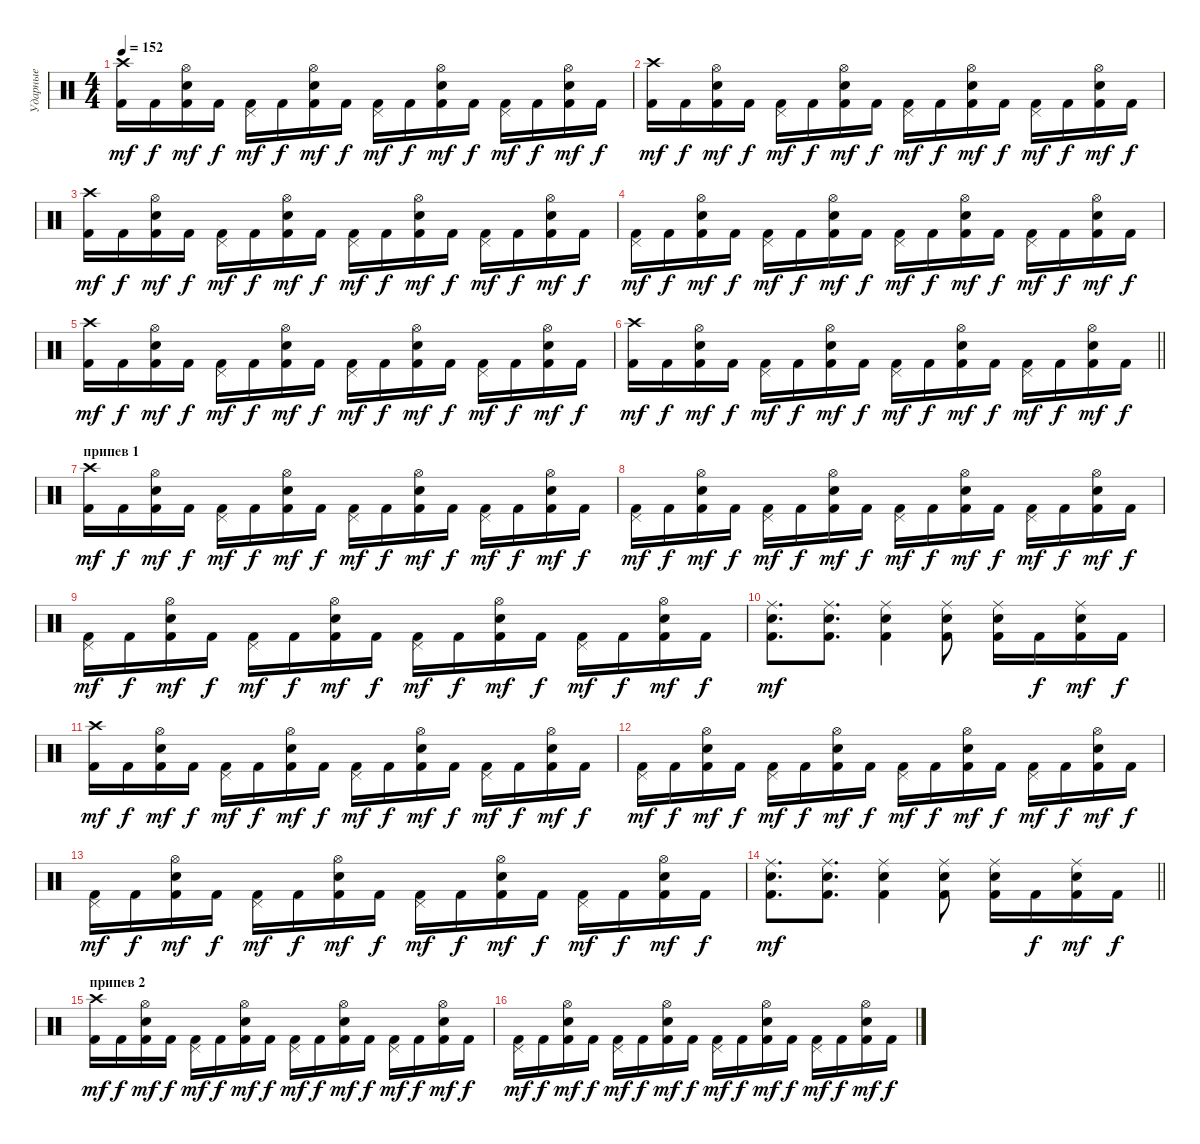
\track ("Ударные" "Ударные") {instrument percussion}
\staff {score}
\articulation defaults
\ts (4 4)
\tempo 152
\clef neutral
\ks c
("Kick (hit) 2" "Crash high (hit)").16{dy mf} "Kick (hit) 2".16{dy f} ("Kick (hit) 2" "Electric Snare (hit)" "Hi-Hat (open)").16{dy mf} "Kick (hit) 2".16{dy f} ("Kick (hit) 2" "Pedal Hi-Hat (hit)").16{dy mf} "Kick (hit) 2".16{dy f} ("Kick (hit) 2" "Electric Snare (hit)" "Hi-Hat (open)").16{dy mf} "Kick (hit) 2".16{dy f} ("Kick (hit) 2" "Pedal Hi-Hat (hit)").16{dy mf} "Kick (hit) 2".16{dy f} ("Kick (hit) 2" "Electric Snare (hit)" "Hi-Hat (open)").16{dy mf} "Kick (hit) 2".16{dy f} ("Kick (hit) 2" "Pedal Hi-Hat (hit)").16{dy mf} "Kick (hit) 2".16{dy f} ("Kick (hit) 2" "Electric Snare (hit)" "Hi-Hat (open)").16{dy mf} "Kick (hit) 2".16{dy f} |
("Kick (hit) 2" "Crash high (hit)").16{dy mf} "Kick (hit) 2".16{dy f} ("Kick (hit) 2" "Electric Snare (hit)" "Hi-Hat (open)").16{dy mf} "Kick (hit) 2".16{dy f} ("Kick (hit) 2" "Pedal Hi-Hat (hit)").16{dy mf} "Kick (hit) 2".16{dy f} ("Kick (hit) 2" "Electric Snare (hit)" "Hi-Hat (open)").16{dy mf} "Kick (hit) 2".16{dy f} ("Kick (hit) 2" "Pedal Hi-Hat (hit)").16{dy mf} "Kick (hit) 2".16{dy f} ("Kick (hit) 2" "Electric Snare (hit)" "Hi-Hat (open)").16{dy mf} "Kick (hit) 2".16{dy f} ("Kick (hit) 2" "Pedal Hi-Hat (hit)").16{dy mf} "Kick (hit) 2".16{dy f} ("Kick (hit) 2" "Electric Snare (hit)" "Hi-Hat (open)").16{dy mf} "Kick (hit) 2".16{dy f} |
("Kick (hit) 2" "Crash high (hit)").16{dy mf} "Kick (hit) 2".16{dy f} ("Kick (hit) 2" "Electric Snare (hit)" "Hi-Hat (open)").16{dy mf} "Kick (hit) 2".16{dy f} ("Kick (hit) 2" "Pedal Hi-Hat (hit)").16{dy mf} "Kick (hit) 2".16{dy f} ("Kick (hit) 2" "Electric Snare (hit)" "Hi-Hat (open)").16{dy mf} "Kick (hit) 2".16{dy f} ("Kick (hit) 2" "Pedal Hi-Hat (hit)").16{dy mf} "Kick (hit) 2".16{dy f} ("Kick (hit) 2" "Electric Snare (hit)" "Hi-Hat (open)").16{dy mf} "Kick (hit) 2".16{dy f} ("Kick (hit) 2" "Pedal Hi-Hat (hit)").16{dy mf} "Kick (hit) 2".16{dy f} ("Kick (hit) 2" "Electric Snare (hit)" "Hi-Hat (open)").16{dy mf} "Kick (hit) 2".16{dy f} |
("Kick (hit) 2" "Pedal Hi-Hat (hit)").16{dy mf} "Kick (hit) 2".16{dy f} ("Kick (hit) 2" "Electric Snare (hit)" "Hi-Hat (open)").16{dy mf} "Kick (hit) 2".16{dy f} ("Kick (hit) 2" "Pedal Hi-Hat (hit)").16{dy mf} "Kick (hit) 2".16{dy f} ("Kick (hit) 2" "Electric Snare (hit)" "Hi-Hat (open)").16{dy mf} "Kick (hit) 2".16{dy f} ("Kick (hit) 2" "Pedal Hi-Hat (hit)").16{dy mf} "Kick (hit) 2".16{dy f} ("Kick (hit) 2" "Electric Snare (hit)" "Hi-Hat (open)").16{dy mf} "Kick (hit) 2".16{dy f} ("Kick (hit) 2" "Pedal Hi-Hat (hit)").16{dy mf} "Kick (hit) 2".16{dy f} ("Kick (hit) 2" "Electric Snare (hit)" "Hi-Hat (open)").16{dy mf} "Kick (hit) 2".16{dy f} |
("Kick (hit) 2" "Crash high (hit)").16{dy mf} "Kick (hit) 2".16{dy f} ("Kick (hit) 2" "Electric Snare (hit)" "Hi-Hat (open)").16{dy mf} "Kick (hit) 2".16{dy f} ("Kick (hit) 2" "Pedal Hi-Hat (hit)").16{dy mf} "Kick (hit) 2".16{dy f} ("Kick (hit) 2" "Electric Snare (hit)" "Hi-Hat (open)").16{dy mf} "Kick (hit) 2".16{dy f} ("Kick (hit) 2" "Pedal Hi-Hat (hit)").16{dy mf} "Kick (hit) 2".16{dy f} ("Kick (hit) 2" "Electric Snare (hit)" "Hi-Hat (open)").16{dy mf} "Kick (hit) 2".16{dy f} ("Kick (hit) 2" "Pedal Hi-Hat (hit)").16{dy mf} "Kick (hit) 2".16{dy f} ("Kick (hit) 2" "Electric Snare (hit)" "Hi-Hat (open)").16{dy mf} "Kick (hit) 2".16{dy f} |
\barLineRight lightlight
("Kick (hit) 2" "Crash high (hit)").16{dy mf} "Kick (hit) 2".16{dy f} ("Kick (hit) 2" "Electric Snare (hit)" "Hi-Hat (open)").16{dy mf} "Kick (hit) 2".16{dy f} ("Kick (hit) 2" "Pedal Hi-Hat (hit)").16{dy mf} "Kick (hit) 2".16{dy f} ("Kick (hit) 2" "Electric Snare (hit)" "Hi-Hat (open)").16{dy mf} "Kick (hit) 2".16{dy f} ("Kick (hit) 2" "Pedal Hi-Hat (hit)").16{dy mf} "Kick (hit) 2".16{dy f} ("Kick (hit) 2" "Electric Snare (hit)" "Hi-Hat (open)").16{dy mf} "Kick (hit) 2".16{dy f} ("Kick (hit) 2" "Pedal Hi-Hat (hit)").16{dy mf} "Kick (hit) 2".16{dy f} ("Kick (hit) 2" "Electric Snare (hit)" "Hi-Hat (open)").16{dy mf} "Kick (hit) 2".16{dy f} |
\section ("" "припев 1")
("Kick (hit) 2" "Crash high (hit)").16{dy mf} "Kick (hit) 2".16{dy f} ("Kick (hit) 2" "Electric Snare (hit)" "Hi-Hat (open)").16{dy mf} "Kick (hit) 2".16{dy f} ("Kick (hit) 2" "Pedal Hi-Hat (hit)").16{dy mf} "Kick (hit) 2".16{dy f} ("Kick (hit) 2" "Electric Snare (hit)" "Hi-Hat (open)").16{dy mf} "Kick (hit) 2".16{dy f} ("Kick (hit) 2" "Pedal Hi-Hat (hit)").16{dy mf} "Kick (hit) 2".16{dy f} ("Kick (hit) 2" "Electric Snare (hit)" "Hi-Hat (open)").16{dy mf} "Kick (hit) 2".16{dy f} ("Kick (hit) 2" "Pedal Hi-Hat (hit)").16{dy mf} "Kick (hit) 2".16{dy f} ("Kick (hit) 2" "Electric Snare (hit)" "Hi-Hat (open)").16{dy mf} "Kick (hit) 2".16{dy f} |
("Kick (hit) 2" "Pedal Hi-Hat (hit)").16{dy mf} "Kick (hit) 2".16{dy f} ("Kick (hit) 2" "Electric Snare (hit)" "Hi-Hat (open)").16{dy mf} "Kick (hit) 2".16{dy f} ("Kick (hit) 2" "Pedal Hi-Hat (hit)").16{dy mf} "Kick (hit) 2".16{dy f} ("Kick (hit) 2" "Electric Snare (hit)" "Hi-Hat (open)").16{dy mf} "Kick (hit) 2".16{dy f} ("Kick (hit) 2" "Pedal Hi-Hat (hit)").16{dy mf} "Kick (hit) 2".16{dy f} ("Kick (hit) 2" "Electric Snare (hit)" "Hi-Hat (open)").16{dy mf} "Kick (hit) 2".16{dy f} ("Kick (hit) 2" "Pedal Hi-Hat (hit)").16{dy mf} "Kick (hit) 2".16{dy f} ("Kick (hit) 2" "Electric Snare (hit)" "Hi-Hat (open)").16{dy mf} "Kick (hit) 2".16{dy f} |
("Kick (hit) 2" "Pedal Hi-Hat (hit)").16{dy mf} "Kick (hit) 2".16{dy f} ("Kick (hit) 2" "Electric Snare (hit)" "Hi-Hat (open)").16{dy mf} "Kick (hit) 2".16{dy f} ("Kick (hit) 2" "Pedal Hi-Hat (hit)").16{dy mf} "Kick (hit) 2".16{dy f} ("Kick (hit) 2" "Electric Snare (hit)" "Hi-Hat (open)").16{dy mf} "Kick (hit) 2".16{dy f} ("Kick (hit) 2" "Pedal Hi-Hat (hit)").16{dy mf} "Kick (hit) 2".16{dy f} ("Kick (hit) 2" "Electric Snare (hit)" "Hi-Hat (open)").16{dy mf} "Kick (hit) 2".16{dy f} ("Kick (hit) 2" "Pedal Hi-Hat (hit)").16{dy mf} "Kick (hit) 2".16{dy f} ("Kick (hit) 2" "Electric Snare (hit)" "Hi-Hat (open)").16{dy mf} "Kick (hit) 2".16{dy f} |
("Kick (hit) 2" "Electric Snare (hit)" "Ride (middle)").8{d dy mf} ("Kick (hit) 2" "Electric Snare (hit)" "Ride (middle)").8{d} ("Kick (hit) 2" "Electric Snare (hit)" "Ride (middle)").4 ("Kick (hit) 2" "Electric Snare (hit)" "Ride (middle)").8 ("Kick (hit) 2" "Electric Snare (hit)" "Ride (middle)").16 "Kick (hit) 2".16{dy f} ("Kick (hit) 2" "Electric Snare (hit)" "Ride (middle)").16{dy mf} "Kick (hit) 2".16{dy f} |
("Kick (hit) 2" "Crash high (hit)").16{dy mf} "Kick (hit) 2".16{dy f} ("Kick (hit) 2" "Electric Snare (hit)" "Hi-Hat (open)").16{dy mf} "Kick (hit) 2".16{dy f} ("Kick (hit) 2" "Pedal Hi-Hat (hit)").16{dy mf} "Kick (hit) 2".16{dy f} ("Kick (hit) 2" "Electric Snare (hit)" "Hi-Hat (open)").16{dy mf} "Kick (hit) 2".16{dy f} ("Kick (hit) 2" "Pedal Hi-Hat (hit)").16{dy mf} "Kick (hit) 2".16{dy f} ("Kick (hit) 2" "Electric Snare (hit)" "Hi-Hat (open)").16{dy mf} "Kick (hit) 2".16{dy f} ("Kick (hit) 2" "Pedal Hi-Hat (hit)").16{dy mf} "Kick (hit) 2".16{dy f} ("Kick (hit) 2" "Electric Snare (hit)" "Hi-Hat (open)").16{dy mf} "Kick (hit) 2".16{dy f} |
("Kick (hit) 2" "Pedal Hi-Hat (hit)").16{dy mf} "Kick (hit) 2".16{dy f} ("Kick (hit) 2" "Electric Snare (hit)" "Hi-Hat (open)").16{dy mf} "Kick (hit) 2".16{dy f} ("Kick (hit) 2" "Pedal Hi-Hat (hit)").16{dy mf} "Kick (hit) 2".16{dy f} ("Kick (hit) 2" "Electric Snare (hit)" "Hi-Hat (open)").16{dy mf} "Kick (hit) 2".16{dy f} ("Kick (hit) 2" "Pedal Hi-Hat (hit)").16{dy mf} "Kick (hit) 2".16{dy f} ("Kick (hit) 2" "Electric Snare (hit)" "Hi-Hat (open)").16{dy mf} "Kick (hit) 2".16{dy f} ("Kick (hit) 2" "Pedal Hi-Hat (hit)").16{dy mf} "Kick (hit) 2".16{dy f} ("Kick (hit) 2" "Electric Snare (hit)" "Hi-Hat (open)").16{dy mf} "Kick (hit) 2".16{dy f} |
("Kick (hit) 2" "Pedal Hi-Hat (hit)").16{dy mf} "Kick (hit) 2".16{dy f} ("Kick (hit) 2" "Electric Snare (hit)" "Hi-Hat (open)").16{dy mf} "Kick (hit) 2".16{dy f} ("Kick (hit) 2" "Pedal Hi-Hat (hit)").16{dy mf} "Kick (hit) 2".16{dy f} ("Kick (hit) 2" "Electric Snare (hit)" "Hi-Hat (open)").16{dy mf} "Kick (hit) 2".16{dy f} ("Kick (hit) 2" "Pedal Hi-Hat (hit)").16{dy mf} "Kick (hit) 2".16{dy f} ("Kick (hit) 2" "Electric Snare (hit)" "Hi-Hat (open)").16{dy mf} "Kick (hit) 2".16{dy f} ("Kick (hit) 2" "Pedal Hi-Hat (hit)").16{dy mf} "Kick (hit) 2".16{dy f} ("Kick (hit) 2" "Electric Snare (hit)" "Hi-Hat (open)").16{dy mf} "Kick (hit) 2".16{dy f} |
\barLineRight lightlight
("Kick (hit) 2" "Electric Snare (hit)" "Ride (middle)").8{d dy mf} ("Kick (hit) 2" "Electric Snare (hit)" "Ride (middle)").8{d} ("Kick (hit) 2" "Electric Snare (hit)" "Ride (middle)").4 ("Kick (hit) 2" "Electric Snare (hit)" "Ride (middle)").8 ("Kick (hit) 2" "Electric Snare (hit)" "Ride (middle)").16 "Kick (hit) 2".16{dy f} ("Kick (hit) 2" "Electric Snare (hit)" "Ride (middle)").16{dy mf} "Kick (hit) 2".16{dy f} |
\section ("" "припев 2")
("Kick (hit) 2" "Crash high (hit)").16{dy mf} "Kick (hit) 2".16{dy f} ("Kick (hit) 2" "Electric Snare (hit)" "Hi-Hat (open)").16{dy mf} "Kick (hit) 2".16{dy f} ("Kick (hit) 2" "Pedal Hi-Hat (hit)").16{dy mf} "Kick (hit) 2".16{dy f} ("Kick (hit) 2" "Electric Snare (hit)" "Hi-Hat (open)").16{dy mf} "Kick (hit) 2".16{dy f} ("Kick (hit) 2" "Pedal Hi-Hat (hit)").16{dy mf} "Kick (hit) 2".16{dy f} ("Kick (hit) 2" "Electric Snare (hit)" "Hi-Hat (open)").16{dy mf} "Kick (hit) 2".16{dy f} ("Kick (hit) 2" "Pedal Hi-Hat (hit)").16{dy mf} "Kick (hit) 2".16{dy f} ("Kick (hit) 2" "Electric Snare (hit)" "Hi-Hat (open)").16{dy mf} "Kick (hit) 2".16{dy f} |
("Kick (hit) 2" "Pedal Hi-Hat (hit)").16{dy mf} "Kick (hit) 2".16{dy f} ("Kick (hit) 2" "Electric Snare (hit)" "Hi-Hat (open)").16{dy mf} "Kick (hit) 2".16{dy f} ("Kick (hit) 2" "Pedal Hi-Hat (hit)").16{dy mf} "Kick (hit) 2".16{dy f} ("Kick (hit) 2" "Electric Snare (hit)" "Hi-Hat (open)").16{dy mf} "Kick (hit) 2".16{dy f} ("Kick (hit) 2" "Pedal Hi-Hat (hit)").16{dy mf} "Kick (hit) 2".16{dy f} ("Kick (hit) 2" "Electric Snare (hit)" "Hi-Hat (open)").16{dy mf} "Kick (hit) 2".16{dy f} ("Kick (hit) 2" "Pedal Hi-Hat (hit)").16{dy mf} "Kick (hit) 2".16{dy f} ("Kick (hit) 2" "Electric Snare (hit)" "Hi-Hat (open)").16{dy mf} "Kick (hit) 2".16{dy f}
